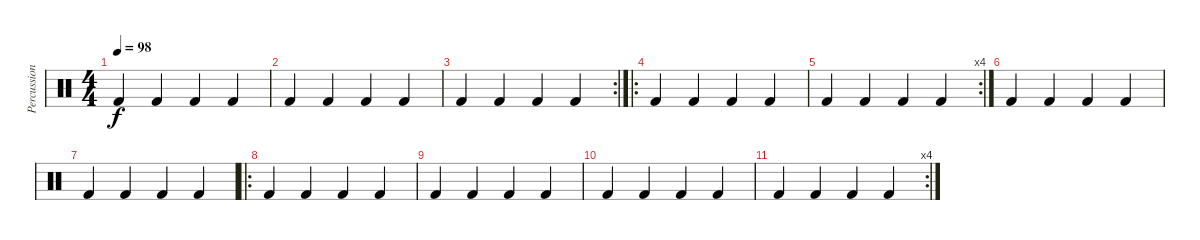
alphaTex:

\track ("Percussion" "Percussion") {instrument percussion}
\staff {score}
\articulation defaults
\ts (4 4)
\tempo 98
\clef neutral
\ks c "Kick (hit) 2".4{dy f} "Kick (hit) 2".4 "Kick (hit) 2".4 "Kick (hit) 2".4
|
"Kick (hit) 2".4 "Kick (hit) 2".4 "Kick (hit) 2".4 "Kick (hit) 2".4 |
\rc 2 "Kick (hit) 2".4 "Kick (hit) 2".4 "Kick (hit) 2".4 "Kick (hit) 2".4
|
\ro "Kick (hit) 2".4 "Kick (hit) 2".4 "Kick (hit) 2".4 "Kick (hit) 2".4
|
\rc 4 "Kick (hit) 2".4 "Kick (hit) 2".4 "Kick (hit) 2".4 "Kick (hit) 2".4
|
"Kick (hit) 2".4 "Kick (hit) 2".4 "Kick (hit) 2".4 "Kick (hit) 2".4 |
"Kick (hit) 2".4 "Kick (hit) 2".4 "Kick (hit) 2".4 "Kick (hit) 2".4 |
\ro "Kick (hit) 2".4 "Kick (hit) 2".4 "Kick (hit) 2".4 "Kick (hit) 2".4
|
"Kick (hit) 2".4 "Kick (hit) 2".4 "Kick (hit) 2".4 "Kick (hit) 2".4 |
"Kick (hit) 2".4 "Kick (hit) 2".4 "Kick (hit) 2".4 "Kick (hit) 2".4 |
\rc 4 "Kick (hit) 2".4 "Kick (hit) 2".4 "Kick (hit) 2".4 "Kick (hit) 2".4
